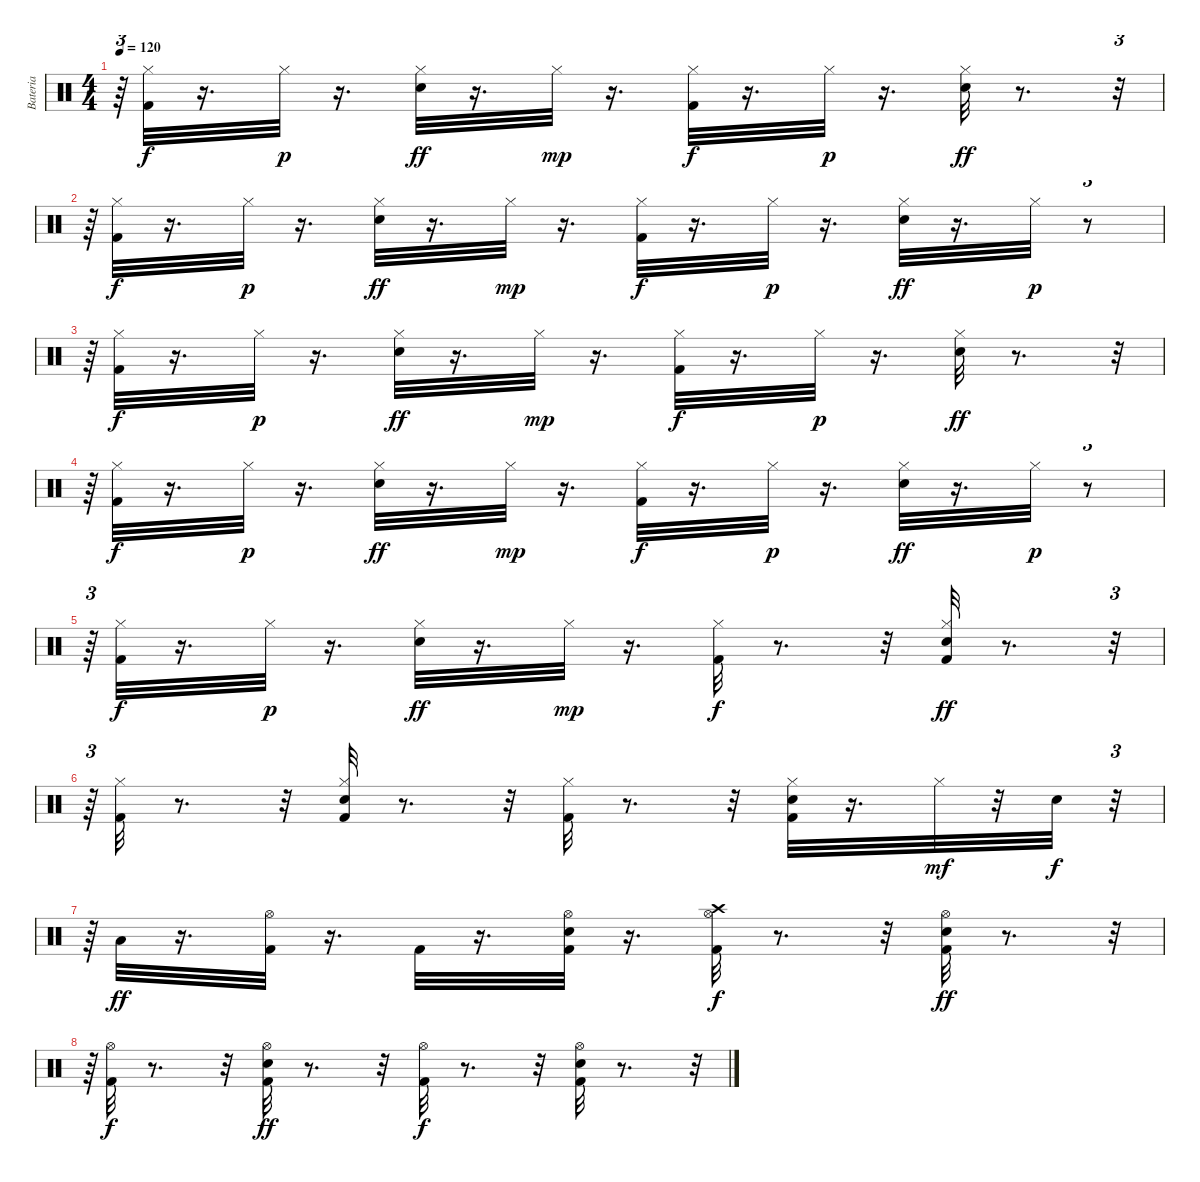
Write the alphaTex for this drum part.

\track ("Bateria" "Bateria") {instrument percussion}
\staff {score}
\articulation defaults
\ts (4 4)
\tempo 120
\clef neutral
\ks c
r.64{tu (3 2) dy p} ("Kick (hit) 2" "Hi-Hat (closed)").32{dy f} r.16{d} "Hi-Hat (closed)".32{dy p} r.16{d} ("Electric Snare (hit)" "Hi-Hat (closed)").32{dy ff} r.16{d} "Hi-Hat (closed)".32{dy mp} r.16{d} ("Kick (hit) 2" "Hi-Hat (closed)").32{dy f} r.16{d} "Hi-Hat (closed)".32{dy p} r.16{d} ("Electric Snare (hit)" "Hi-Hat (closed)").32{dy ff} r.8{d} r.32{tu (3 2)} |
r.64{tu (3 2)} ("Kick (hit) 2" "Hi-Hat (closed)").32{dy f} r.16{d} "Hi-Hat (closed)".32{dy p} r.16{d} ("Electric Snare (hit)" "Hi-Hat (closed)").32{dy ff} r.16{d} "Hi-Hat (closed)".32{dy mp} r.16{d} ("Kick (hit) 2" "Hi-Hat (closed)").32{dy f} r.16{d} "Hi-Hat (closed)".32{dy p} r.16{d} ("Hi-Hat (closed)" "Electric Snare (hit)").32{dy ff} r.16{d} "Hi-Hat (closed)".32{dy p} r.8{tu (3 2)} |
r.64{tu (3 2)} ("Kick (hit) 2" "Hi-Hat (closed)").32{dy f} r.16{d} "Hi-Hat (closed)".32{dy p} r.16{d} ("Electric Snare (hit)" "Hi-Hat (closed)").32{dy ff} r.16{d} "Hi-Hat (closed)".32{dy mp} r.16{d} ("Kick (hit) 2" "Hi-Hat (closed)").32{dy f} r.16{d} "Hi-Hat (closed)".32{dy p} r.16{d} ("Electric Snare (hit)" "Hi-Hat (closed)").32{dy ff} r.8{d} r.32{tu (3 2)} |
r.64{tu (3 2)} ("Kick (hit) 2" "Hi-Hat (closed)").32{dy f} r.16{d} "Hi-Hat (closed)".32{dy p} r.16{d} ("Electric Snare (hit)" "Hi-Hat (closed)").32{dy ff} r.16{d} "Hi-Hat (closed)".32{dy mp} r.16{d} ("Kick (hit) 2" "Hi-Hat (closed)").32{dy f} r.16{d} "Hi-Hat (closed)".32{dy p} r.16{d} ("Hi-Hat (closed)" "Electric Snare (hit)").32{dy ff} r.16{d} "Hi-Hat (closed)".32{dy p} r.8{tu (3 2)} |
r.64{tu (3 2)} ("Kick (hit) 2" "Hi-Hat (closed)").32{dy f} r.16{d} "Hi-Hat (closed)".32{dy p} r.16{d} ("Electric Snare (hit)" "Hi-Hat (closed)").32{dy ff} r.16{d} "Hi-Hat (closed)".32{dy mp} r.16{d} ("Hi-Hat (closed)" "Kick (hit) 2").32{dy f} r.8{d} r.32 ("Hi-Hat (closed)" "Electric Snare (hit)" "Kick (hit) 2").32{dy ff} r.8{d} r.32{tu (3 2)} |
r.64{tu (3 2)} ("Hi-Hat (closed)" "Kick (hit) 2").32 r.8{d} r.32 ("Hi-Hat (closed)" "Electric Snare (hit)" "Kick (hit) 2").32 r.8{d} r.32 ("Kick (hit) 2" "Hi-Hat (closed)").32 r.8{d} r.32 ("Hi-Hat (closed)" "Electric Snare (hit)" "Kick (hit) 2").32 r.16{d} "Hi-Hat (closed)".32{dy mf} r.32 "Electric Snare (hit)".32{dy f} r.32{tu (3 2)} |
r.64{tu (3 2)} "Low Tom (hit)".32{dy ff} r.16{d} ("Kick (hit) 2" "Hi-Hat (open)").32 r.16{d} "Kick (hit) 2".32 r.16{d} ("Kick (hit) 2" "Hi-Hat (open)" "Electric Snare (hit)").32 r.16{d} ("Kick (hit) 2" "Crash high (hit)" "Hi-Hat (open)").32{dy f} r.8{d} r.32 ("Electric Snare (hit)" "Kick (hit) 2" "Hi-Hat (open)").32{dy ff} r.8{d} r.32{tu (3 2)} |
r.64{tu (3 2)} ("Hi-Hat (open)" "Kick (hit) 2").32{dy f} r.8{d} r.32 ("Electric Snare (hit)" "Hi-Hat (open)" "Kick (hit) 2").32{dy ff} r.8{d} r.32 ("Hi-Hat (open)" "Kick (hit) 2").32{dy f} r.8{d} r.32 ("Hi-Hat (open)" "Kick (hit) 2" "Electric Snare (hit)").32 r.8{d} r.32{tu (3 2)}
